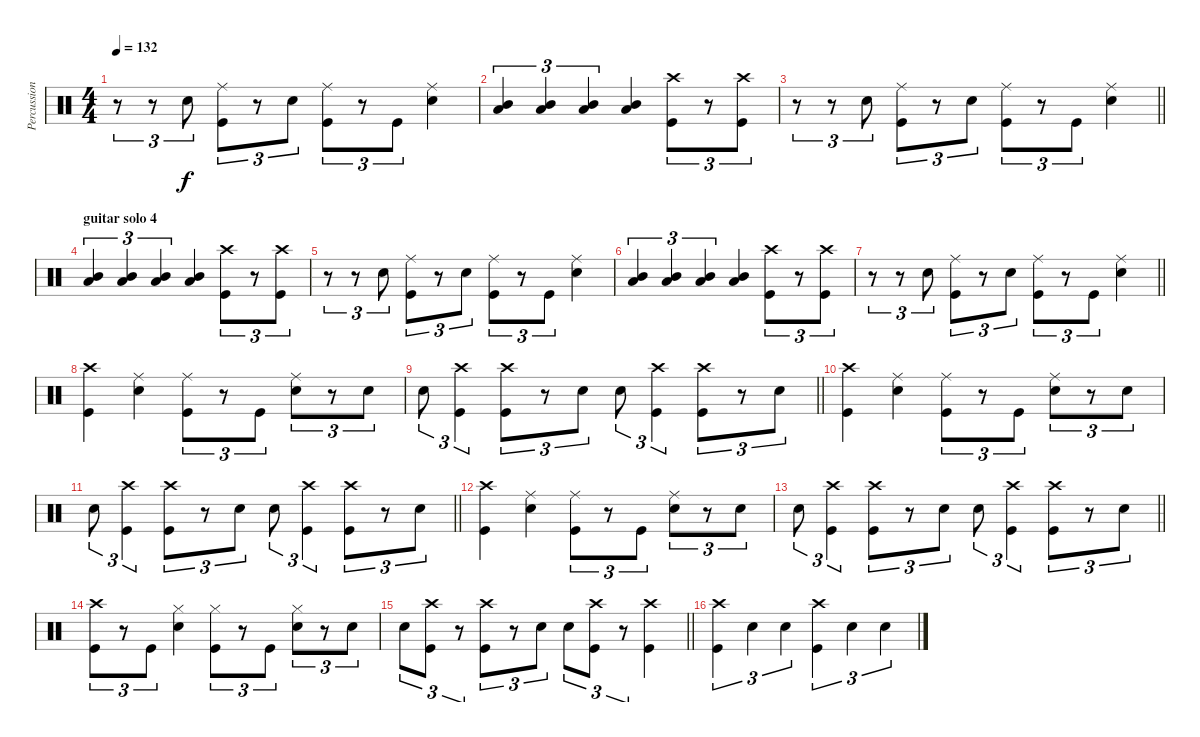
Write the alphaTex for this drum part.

\track ("Percussion" "Percussion") {instrument percussion}
\staff {score}
\articulation defaults
\ts (4 4)
\tempo 132
\clef neutral
\ks c
r.8{tu (3 2) dy f} r.8{tu (3 2)} "Snare (hit) 2".8{tu (3 2)} ("Ride (middle)" "Kick (hit)").8{tu (3 2)} r.8{tu (3 2)} "Snare (hit) 2".8{tu (3 2)} ("Ride (middle)" "Kick (hit)").8{tu (3 2)} r.8{tu (3 2)} "Kick (hit)".8{tu (3 2)} ("Snare (hit) 2" "Ride (middle)").4 |
("Mid Tom (hit)" "Low Tom (hit)").4{tu (3 2)} ("Low Tom (hit)" "Mid Tom (hit)").4{tu (3 2)} ("Mid Tom (hit)" "Low Tom (hit)").4{tu (3 2)} ("Low Tom (hit)" "Mid Tom (hit)").4 ("Crash high (hit)" "Kick (hit)").8{tu (3 2)} r.8{tu (3 2)} ("Crash high (hit)" "Kick (hit)").8{tu (3 2)} |
\barLineRight lightlight
r.8{tu (3 2)} r.8{tu (3 2)} "Snare (hit) 2".8{tu (3 2)} ("Ride (middle)" "Kick (hit)").8{tu (3 2)} r.8{tu (3 2)} "Snare (hit) 2".8{tu (3 2)} ("Ride (middle)" "Kick (hit)").8{tu (3 2)} r.8{tu (3 2)} "Kick (hit)".8{tu (3 2)} ("Snare (hit) 2" "Ride (middle)").4 |
\section ("" "guitar solo 4")
("Mid Tom (hit)" "Low Tom (hit)").4{tu (3 2)} ("Low Tom (hit)" "Mid Tom (hit)").4{tu (3 2)} ("Mid Tom (hit)" "Low Tom (hit)").4{tu (3 2)} ("Low Tom (hit)" "Mid Tom (hit)").4 ("Crash high (hit)" "Kick (hit)").8{tu (3 2)} r.8{tu (3 2)} ("Crash high (hit)" "Kick (hit)").8{tu (3 2)} |
r.8{tu (3 2)} r.8{tu (3 2)} "Snare (hit) 2".8{tu (3 2)} ("Ride (middle)" "Kick (hit)").8{tu (3 2)} r.8{tu (3 2)} "Snare (hit) 2".8{tu (3 2)} ("Ride (middle)" "Kick (hit)").8{tu (3 2)} r.8{tu (3 2)} "Kick (hit)".8{tu (3 2)} ("Snare (hit) 2" "Ride (middle)").4 |
("Mid Tom (hit)" "Low Tom (hit)").4{tu (3 2)} ("Low Tom (hit)" "Mid Tom (hit)").4{tu (3 2)} ("Mid Tom (hit)" "Low Tom (hit)").4{tu (3 2)} ("Low Tom (hit)" "Mid Tom (hit)").4 ("Crash high (hit)" "Kick (hit)").8{tu (3 2)} r.8{tu (3 2)} ("Crash high (hit)" "Kick (hit)").8{tu (3 2)} |
\barLineRight lightlight
r.8{tu (3 2)} r.8{tu (3 2)} "Snare (hit) 2".8{tu (3 2)} ("Ride (middle)" "Kick (hit)").8{tu (3 2)} r.8{tu (3 2)} "Snare (hit) 2".8{tu (3 2)} ("Ride (middle)" "Kick (hit)").8{tu (3 2)} r.8{tu (3 2)} "Kick (hit)".8{tu (3 2)} ("Snare (hit) 2" "Ride (middle)").4 |
("Crash high (hit)" "Kick (hit)").4 ("Snare (hit) 2" "Ride (middle)").4 ("Ride (middle)" "Kick (hit)").8{tu (3 2)} r.8{tu (3 2)} "Kick (hit)".8{tu (3 2)} ("Snare (hit) 2" "Ride (middle)").8{tu (3 2)} r.8{tu (3 2)} "Snare (hit) 2".8{tu (3 2)} |
\barLineRight lightlight "Snare (hit) 2".8{tu (3 2)}
("Crash high (hit)" "Kick (hit)").4{tu (3 2)} ("Crash high (hit)" "Kick (hit)").8{tu (3 2)} r.8{tu (3 2)} "Snare (hit) 2".8{tu (3 2)} "Snare (hit) 2".8{tu (3 2)} ("Crash high (hit)" "Kick (hit)").4{tu (3 2)} ("Crash high (hit)" "Kick (hit)").8{tu (3 2)} r.8{tu (3 2)} "Snare (hit) 2".8{tu (3 2)} |
("Crash high (hit)" "Kick (hit)").4 ("Snare (hit) 2" "Ride (middle)").4 ("Ride (middle)" "Kick (hit)").8{tu (3 2)} r.8{tu (3 2)} "Kick (hit)".8{tu (3 2)} ("Snare (hit) 2" "Ride (middle)").8{tu (3 2)} r.8{tu (3 2)} "Snare (hit) 2".8{tu (3 2)} |
\barLineRight lightlight "Snare (hit) 2".8{tu (3 2)}
("Crash high (hit)" "Kick (hit)").4{tu (3 2)} ("Crash high (hit)" "Kick (hit)").8{tu (3 2)} r.8{tu (3 2)} "Snare (hit) 2".8{tu (3 2)} "Snare (hit) 2".8{tu (3 2)} ("Crash high (hit)" "Kick (hit)").4{tu (3 2)} ("Crash high (hit)" "Kick (hit)").8{tu (3 2)} r.8{tu (3 2)} "Snare (hit) 2".8{tu (3 2)} |
("Crash high (hit)" "Kick (hit)").4 ("Snare (hit) 2" "Ride (middle)").4 ("Ride (middle)" "Kick (hit)").8{tu (3 2)} r.8{tu (3 2)} "Kick (hit)".8{tu (3 2)} ("Snare (hit) 2" "Ride (middle)").8{tu (3 2)} r.8{tu (3 2)} "Snare (hit) 2".8{tu (3 2)} |
\barLineRight lightlight "Snare (hit) 2".8{tu (3 2)}
("Crash high (hit)" "Kick (hit)").4{tu (3 2)} ("Crash high (hit)" "Kick (hit)").8{tu (3 2)} r.8{tu (3 2)} "Snare (hit) 2".8{tu (3 2)} "Snare (hit) 2".8{tu (3 2)} ("Crash high (hit)" "Kick (hit)").4{tu (3 2)} ("Crash high (hit)" "Kick (hit)").8{tu (3 2)} r.8{tu (3 2)} "Snare (hit) 2".8{tu (3 2)} |
("Kick (hit)" "Crash high (hit)").8{tu (3 2)} r.8{tu (3 2)} "Kick (hit)".8{tu (3 2)} ("Hi-Hat (closed)" "Snare (hit) 2").4 ("Hi-Hat (closed)" "Kick (hit)").8{tu (3 2)} r.8{tu (3 2)} "Kick (hit)".8{tu (3 2)} ("Snare (hit) 2" "Hi-Hat (closed)").8{tu (3 2)} r.8{tu (3 2)} "Snare (hit) 2".8{tu (3 2)} |
\barLineRight lightlight "Snare (hit) 2".8{tu (3 2)}
("Crash high (hit)" "Kick (hit)").8{tu (3 2)} r.8{tu (3 2)} ("Crash high (hit)" "Kick (hit)").8{tu (3 2)} r.8{tu (3 2)} "Snare (hit) 2".8{tu (3 2)} "Snare (hit) 2".8{tu (3 2)} ("Kick (hit)" "Crash high (hit)").8{tu (3 2)} r.8{tu (3 2)} ("Crash high (hit)" "Kick (hit)").4 |
("Crash high (hit)" "Kick (hit)").4{tu (3 2)} "Snare (hit) 2".4{tu (3 2)} "Snare (hit) 2".4{tu (3 2)} ("Crash high (hit)" "Kick (hit)").4{tu (3 2)} "Snare (hit) 2".4{tu (3 2)} "Snare (hit) 2".4{tu (3 2)}
